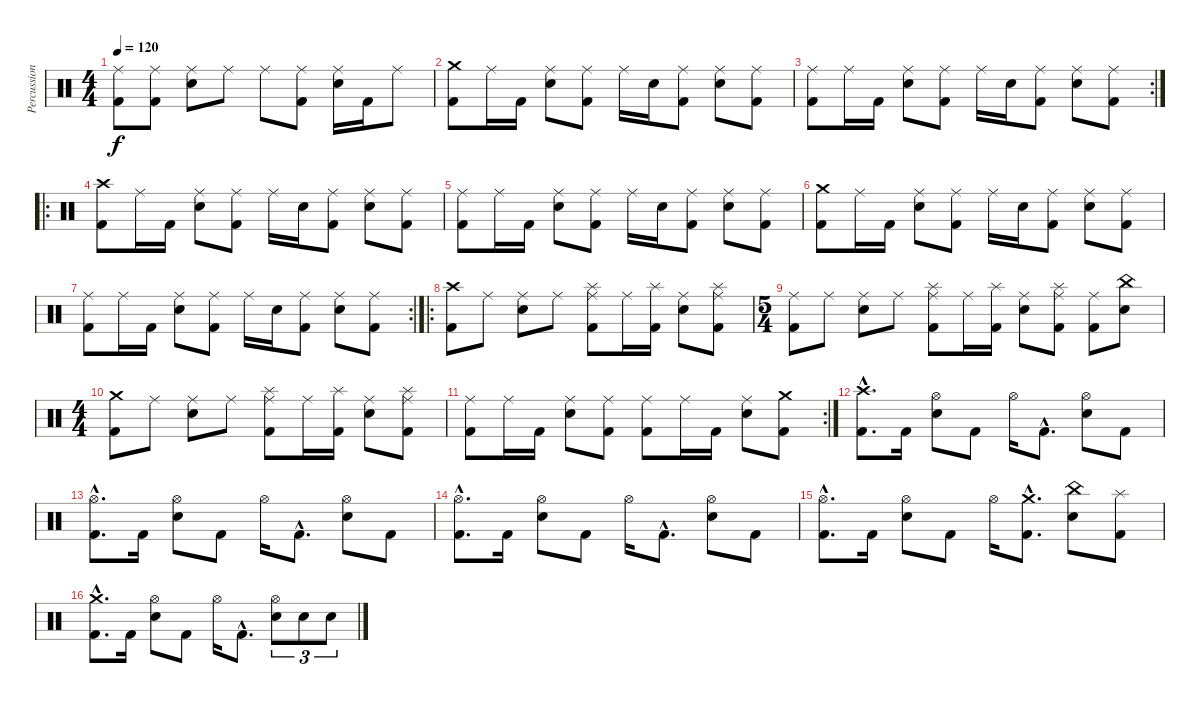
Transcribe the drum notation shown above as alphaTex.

\track ("Percussions" "Percussion") {instrument percussion}
\staff {score}
\articulation defaults
\ts (4 4)
\tempo 120
\clef neutral
\ks c
("Ride (middle)" "Kick (hit) 2").8{dy f} ("Ride (middle)" "Kick (hit) 2").8 ("Ride (middle)" "Electric Snare (hit)").8 "Ride (middle)".8 "Ride (middle)".8 ("Ride (middle)" "Kick (hit) 2").8 ("Ride (middle)" "Electric Snare (hit)").16 "Kick (hit) 2".16 "Ride (middle)".8 |
("Crash medium (hit)" "Kick (hit) 2").8 "Ride (middle)".16 "Kick (hit) 2".16 ("Ride (middle)" "Electric Snare (hit)").8 ("Ride (middle)" "Kick (hit) 2").8 "Ride (middle)".16 "Electric Snare (hit)".16 ("Ride (middle)" "Kick (hit) 2").8 ("Ride (middle)" "Electric Snare (hit)").8 ("Ride (middle)" "Kick (hit) 2").8 |
\rc 2
("Ride (middle)" "Kick (hit) 2").8 "Ride (middle)".16 "Kick (hit) 2".16 ("Ride (middle)" "Electric Snare (hit)").8 ("Ride (middle)" "Kick (hit) 2").8 "Ride (middle)".16 "Electric Snare (hit)".16 ("Ride (middle)" "Kick (hit) 2").8 ("Ride (middle)" "Electric Snare (hit)").8 ("Ride (middle)" "Kick (hit) 2").8 |
\ro
("Crash high (hit)" "Kick (hit) 2").8 "Ride (middle)".16 "Kick (hit) 2".16 ("Ride (middle)" "Electric Snare (hit)").8 ("Ride (middle)" "Kick (hit) 2").8 "Ride (middle)".16 "Electric Snare (hit)".16 ("Ride (middle)" "Kick (hit) 2").8 ("Ride (middle)" "Electric Snare (hit)").8 ("Ride (middle)" "Kick (hit) 2").8 |
("Ride (middle)" "Kick (hit) 2").8 "Ride (middle)".16 "Kick (hit) 2".16 ("Ride (middle)" "Electric Snare (hit)").8 ("Ride (middle)" "Kick (hit) 2").8 "Ride (middle)".16 "Electric Snare (hit)".16 ("Ride (middle)" "Kick (hit) 2").8 ("Ride (middle)" "Electric Snare (hit)").8 ("Ride (middle)" "Kick (hit) 2").8 |
("Crash medium (hit)" "Kick (hit) 2").8 "Ride (middle)".16 "Kick (hit) 2".16 ("Ride (middle)" "Electric Snare (hit)").8 ("Ride (middle)" "Kick (hit) 2").8 "Ride (middle)".16 "Electric Snare (hit)".16 ("Ride (middle)" "Kick (hit) 2").8 ("Ride (middle)" "Electric Snare (hit)").8 ("Ride (middle)" "Kick (hit) 2").8 |
\rc 2
("Ride (middle)" "Kick (hit) 2").8 "Ride (middle)".16 "Kick (hit) 2".16 ("Ride (middle)" "Electric Snare (hit)").8 ("Ride (middle)" "Kick (hit) 2").8 "Ride (middle)".16 "Electric Snare (hit)".16 ("Ride (middle)" "Kick (hit) 2").8 ("Ride (middle)" "Electric Snare (hit)").8 ("Ride (middle)" "Kick (hit) 2").8 |
\ro
("Crash high (hit)" "Kick (hit) 2").8 "Ride (middle)".8 ("Ride (middle)" "Electric Snare (hit)").8 "Ride (middle)".8 ("Splash (hit)" "Ride (middle)" "Kick (hit) 2").8 "Ride (middle)".16 ("Splash (hit)" "Kick (hit) 2").16 ("Ride (middle)" "Electric Snare (hit)").8 ("Splash (hit)" "Ride (middle)" "Kick (hit) 2").8 |
\ts (5 4)
("Ride (middle)" "Kick (hit) 2").8 "Ride (middle)".8 ("Ride (middle)" "Electric Snare (hit)").8 "Ride (middle)".8 ("Splash (hit)" "Ride (middle)" "Kick (hit) 2").8 "Ride (middle)".16 ("Splash (hit)" "Kick (hit) 2").16 ("Ride (middle)" "Electric Snare (hit)").8 ("Splash (hit)" "Ride (middle)" "Kick (hit) 2").8 ("Ride (middle)" "Kick (hit) 2").8 ("China (hit)" "Electric Snare (hit)").8 |
\ts (4 4)
("Crash medium (hit)" "Kick (hit) 2").8 "Ride (middle)".8 ("Ride (middle)" "Electric Snare (hit)").8 "Ride (middle)".8 ("Splash (hit)" "Ride (middle)" "Kick (hit) 2").8 "Ride (middle)".16 ("Splash (hit)" "Kick (hit) 2").16 ("Ride (middle)" "Electric Snare (hit)").8 ("Splash (hit)" "Ride (middle)" "Kick (hit) 2").8 |
\rc 2
("Ride (middle)" "Kick (hit) 2").8 "Ride (middle)".16 "Kick (hit) 2".16 ("Ride (middle)" "Electric Snare (hit)").8 ("Ride (middle)" "Kick (hit) 2").8 ("Ride (middle)" "Kick (hit) 2").8 "Ride (middle)".16 "Kick (hit) 2".16 ("Ride (middle)" "Electric Snare (hit)").8 ("Crash medium (hit)" "Kick (hit) 2").8 |
("Crash high (hit)"{hac} "Kick (hit) 2"{hac}).8{d} "Kick (hit) 2".16 ("Hi-Hat (open)" "Electric Snare (hit)").8 "Kick (hit) 2".8 "Hi-Hat (open)".16 "Kick (hit) 2"{hac}.8{d} ("Hi-Hat (open)" "Electric Snare (hit)").8 "Kick (hit) 2".8 |
("Hi-Hat (open)"{hac} "Kick (hit) 2"{hac}).8{d} "Kick (hit) 2".16 ("Hi-Hat (open)" "Electric Snare (hit)").8 "Kick (hit) 2".8 "Hi-Hat (open)".16 "Kick (hit) 2"{hac}.8{d} ("Hi-Hat (open)" "Electric Snare (hit)").8 "Kick (hit) 2".8 |
("Hi-Hat (open)"{hac} "Kick (hit) 2"{hac}).8{d} "Kick (hit) 2".16 ("Hi-Hat (open)" "Electric Snare (hit)").8 "Kick (hit) 2".8 "Hi-Hat (open)".16 "Kick (hit) 2"{hac}.8{d} ("Hi-Hat (open)" "Electric Snare (hit)").8 "Kick (hit) 2".8 |
("Hi-Hat (open)"{hac} "Kick (hit) 2"{hac}).8{d} "Kick (hit) 2".16 ("Hi-Hat (open)" "Electric Snare (hit)").8 "Kick (hit) 2".8 "Hi-Hat (open)".16 ("Crash medium (hit)"{hac} "Kick (hit) 2"{hac}).8{d} ("China (hit)" "Electric Snare (hit)").8 ("Splash (hit)" "Kick (hit) 2").8 |
("Crash medium (hit)"{hac} "Kick (hit) 2"{hac}).8{d} "Kick (hit) 2".16 ("Hi-Hat (open)" "Electric Snare (hit)").8 "Kick (hit) 2".8 "Hi-Hat (open)".16 "Kick (hit) 2"{hac}.8{d} ("Hi-Hat (open)" "Electric Snare (hit)").8{tu (3 2)} "Electric Snare (hit)".8{tu (3 2)} "Electric Snare (hit)".8{tu (3 2)}
